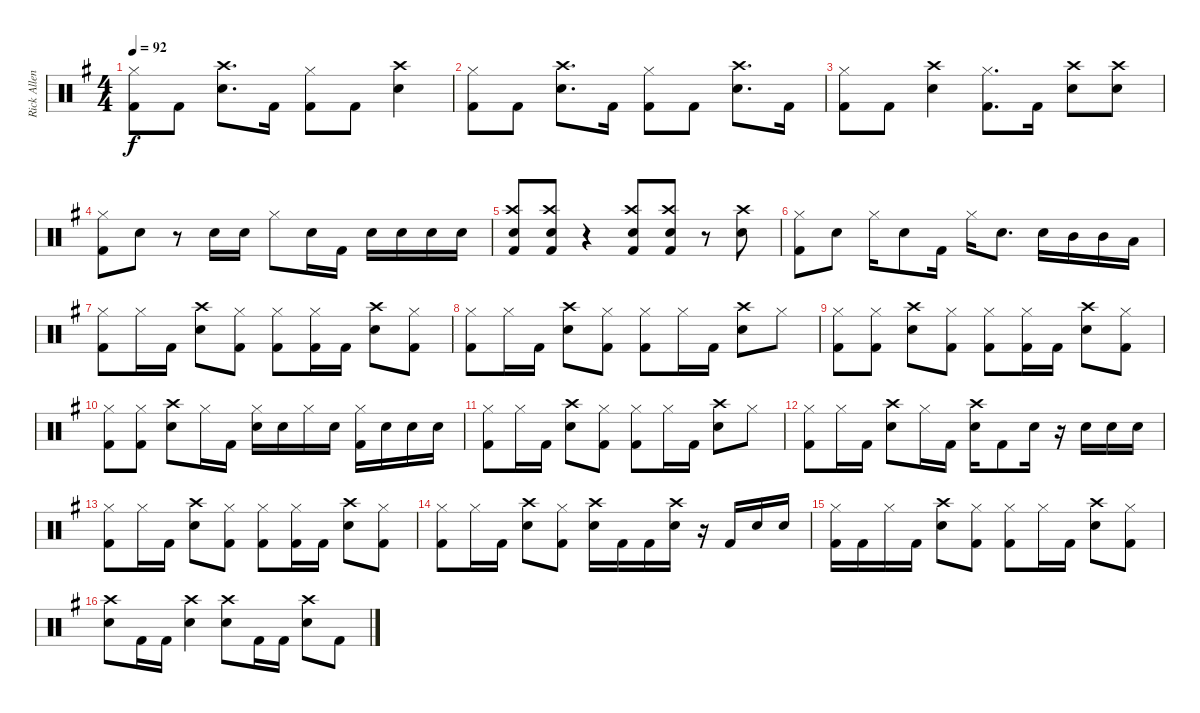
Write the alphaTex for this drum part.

\track ("Rick Allen" "Rick Allen") {instrument percussion}
\staff {score}
\articulation defaults
\ts (4 4)
\tempo 92
\clef neutral
\ks eminor
("Hi-Hat (closed)" "Kick (hit) 2").8{dy f} "Kick (hit) 2".8 ("Crash high (hit)" "Electric Snare (hit)").8{d} "Kick (hit) 2".16 ("Hi-Hat (closed)" "Kick (hit) 2").8 "Kick (hit) 2".8 ("Crash high (hit)" "Electric Snare (hit)").4 |
("Hi-Hat (closed)" "Kick (hit) 2").8 "Kick (hit) 2".8 ("Crash high (hit)" "Electric Snare (hit)").8{d} "Kick (hit) 2".16 ("Hi-Hat (closed)" "Kick (hit) 2").8 "Kick (hit) 2".8 ("Crash high (hit)" "Electric Snare (hit)").8{d} "Kick (hit) 2".16 |
("Hi-Hat (closed)" "Kick (hit) 2").8 "Kick (hit) 2".8 ("Crash high (hit)" "Electric Snare (hit)").4 ("Hi-Hat (closed)" "Kick (hit) 2").8{d} "Kick (hit) 2".16 ("Crash high (hit)" "Electric Snare (hit)").8 ("Crash high (hit)" "Electric Snare (hit)").8 |
("Hi-Hat (closed)" "Kick (hit) 2").8 "Electric Snare (hit)".8 r.8 "Electric Snare (hit)".16 "Electric Snare (hit)".16 "Hi-Hat (closed)".8 "Electric Snare (hit)".16 "Kick (hit) 2".16 "Electric Snare (hit)".16 "Electric Snare (hit)".16 "Electric Snare (hit)".16 "Electric Snare (hit)".16 |
("Crash high (hit)" "Electric Snare (hit)" "Kick (hit) 2").8 ("Crash high (hit)" "Electric Snare (hit)" "Kick (hit) 2").8 r.4 ("Crash high (hit)" "Electric Snare (hit)" "Kick (hit) 2").8 ("Crash high (hit)" "Electric Snare (hit)" "Kick (hit) 2").8 r.8 ("Crash high (hit)" "Electric Snare (hit)").8 |
("Hi-Hat (closed)" "Kick (hit) 2").8 "Electric Snare (hit)".8 "Hi-Hat (closed)".16 "Electric Snare (hit)".8 "Kick (hit) 2".16 "Hi-Hat (closed)".16 "Electric Snare (hit)".8{d} "Electric Snare (hit)".16 "Mid Tom (hit)".16 "Mid Tom (hit)".16 "Low Tom (hit)".16 |
("Hi-Hat (closed)" "Kick (hit) 2").8 "Hi-Hat (closed)".16 "Kick (hit) 2".16 ("Crash high (hit)" "Electric Snare (hit)").8 ("Hi-Hat (closed)" "Kick (hit) 2").8 ("Hi-Hat (closed)" "Kick (hit) 2").8 ("Hi-Hat (closed)" "Kick (hit) 2").16 "Kick (hit) 2".16 ("Crash high (hit)" "Electric Snare (hit)").8 ("Hi-Hat (closed)" "Kick (hit) 2").8 |
("Hi-Hat (closed)" "Kick (hit) 2").8 "Hi-Hat (closed)".16 "Kick (hit) 2".16 ("Crash high (hit)" "Electric Snare (hit)").8 ("Hi-Hat (closed)" "Kick (hit) 2").8 ("Hi-Hat (closed)" "Kick (hit) 2").8 "Hi-Hat (closed)".16 "Kick (hit) 2".16 ("Crash high (hit)" "Electric Snare (hit)").8 "Hi-Hat (closed)".8 |
("Hi-Hat (closed)" "Kick (hit) 2").8 ("Hi-Hat (closed)" "Kick (hit) 2").8 ("Crash high (hit)" "Electric Snare (hit)").8 ("Hi-Hat (closed)" "Kick (hit) 2").8 ("Hi-Hat (closed)" "Kick (hit) 2").8 ("Hi-Hat (closed)" "Kick (hit) 2").16 "Kick (hit) 2".16 ("Crash high (hit)" "Electric Snare (hit)").8 ("Hi-Hat (closed)" "Kick (hit) 2").8 |
("Hi-Hat (closed)" "Kick (hit) 2").8 ("Hi-Hat (closed)" "Kick (hit) 2").8 ("Crash high (hit)" "Electric Snare (hit)").8 "Hi-Hat (closed)".16 "Kick (hit) 2".16 ("Hi-Hat (closed)" "Electric Snare (hit)").16 "Electric Snare (hit)".16 "Hi-Hat (closed)".16 "Electric Snare (hit)".16 ("Hi-Hat (closed)" "Kick (hit) 2").16 "Electric Snare (hit)".16 "Electric Snare (hit)".16 "Electric Snare (hit)".16 |
("Hi-Hat (closed)" "Kick (hit) 2").8 "Hi-Hat (closed)".16 "Kick (hit) 2".16 ("Crash high (hit)" "Electric Snare (hit)").8 ("Hi-Hat (closed)" "Kick (hit) 2").8 ("Hi-Hat (closed)" "Kick (hit) 2").8 "Hi-Hat (closed)".16 "Kick (hit) 2".16 ("Crash high (hit)" "Electric Snare (hit)").8 "Hi-Hat (closed)".8 |
("Hi-Hat (closed)" "Kick (hit) 2").8 "Hi-Hat (closed)".16 "Kick (hit) 2".16 ("Crash high (hit)" "Electric Snare (hit)").8 "Hi-Hat (closed)".16 "Kick (hit) 2".16 ("Crash high (hit)" "Electric Snare (hit)").16 "Kick (hit) 2".8 "Electric Snare (hit)".16 r.16 "Electric Snare (hit)".16 "Electric Snare (hit)".16 "Electric Snare (hit)".16 |
("Hi-Hat (closed)" "Kick (hit) 2").8 "Hi-Hat (closed)".16 "Kick (hit) 2".16 ("Crash high (hit)" "Electric Snare (hit)").8 ("Hi-Hat (closed)" "Kick (hit) 2").8 ("Hi-Hat (closed)" "Kick (hit) 2").8 ("Hi-Hat (closed)" "Kick (hit) 2").16 "Kick (hit) 2".16 ("Crash high (hit)" "Electric Snare (hit)").8 ("Hi-Hat (closed)" "Kick (hit) 2").8 |
("Hi-Hat (closed)" "Kick (hit) 2").8 "Hi-Hat (closed)".16 "Kick (hit) 2".16 ("Crash high (hit)" "Electric Snare (hit)").8 ("Hi-Hat (closed)" "Kick (hit) 2").8 ("Crash high (hit)" "Electric Snare (hit)").16 "Kick (hit) 2".16 "Kick (hit) 2".16 ("Crash high (hit)" "Electric Snare (hit)").16 r.16 "Kick (hit) 2".16 "Electric Snare (hit)".16 "Electric Snare (hit)".16 |
("Hi-Hat (closed)" "Kick (hit) 2").16 "Kick (hit) 2".16 "Hi-Hat (closed)".16 "Kick (hit) 2".16 ("Crash high (hit)" "Electric Snare (hit)").8 ("Hi-Hat (closed)" "Kick (hit) 2").8 ("Hi-Hat (closed)" "Kick (hit) 2").8 "Hi-Hat (closed)".16 "Kick (hit) 2".16 ("Crash high (hit)" "Electric Snare (hit)").8 ("Hi-Hat (closed)" "Kick (hit) 2").8 |
("Crash high (hit)" "Electric Snare (hit)").8 "Kick (hit) 2".16 "Kick (hit) 2".16 ("Crash high (hit)" "Electric Snare (hit)").4 ("Crash high (hit)" "Electric Snare (hit)").8 "Kick (hit) 2".16 "Kick (hit) 2".16 ("Crash high (hit)" "Electric Snare (hit)").8 "Kick (hit) 2".8
